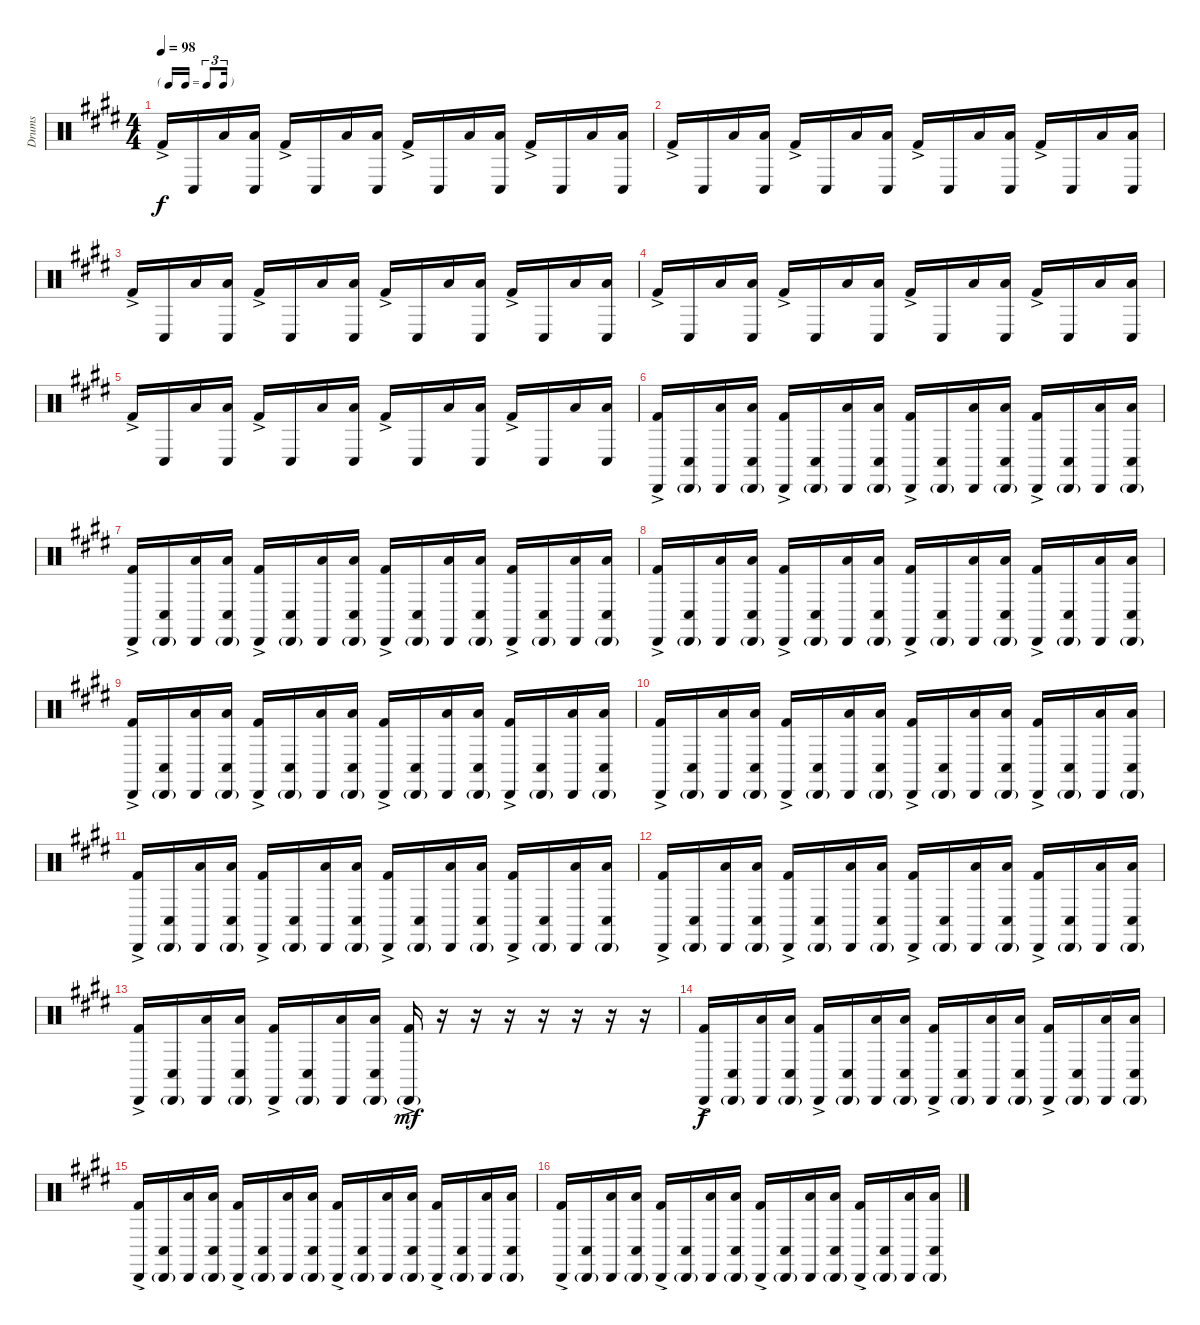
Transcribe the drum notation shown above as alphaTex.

\track ("Drums" "Drums") {instrument percussion}
\staff {score}
\articulation defaults
\ts (4 4)
\tf triplet16th
\tempo 98
\clef neutral
\ks e "Kick (hit) 2"{ac}.16{dy f} "Conga low (hit)".16 "Low Tom (hit)".16
("Low Tom (hit)" "Conga low (hit)").16 "Kick (hit) 2"{ac}.16 "Conga low (hit)".16 "Low Tom (hit)".16 ("Low Tom (hit)" "Conga low (hit)").16 "Kick (hit) 2"{ac}.16 "Conga low (hit)".16 "Low Tom (hit)".16 ("Low Tom (hit)" "Conga low (hit)").16 "Kick (hit) 2"{ac}.16 "Conga low (hit)".16 "Low Tom (hit)".16 ("Low Tom (hit)" "Conga low (hit)").16 |
"Kick (hit) 2"{ac}.16 "Conga low (hit)".16 "Low Tom (hit)".16 ("Low Tom (hit)" "Conga low (hit)").16 "Kick (hit) 2"{ac}.16 "Conga low (hit)".16 "Low Tom (hit)".16 ("Low Tom (hit)" "Conga low (hit)").16 "Kick (hit) 2"{ac}.16 "Conga low (hit)".16 "Low Tom (hit)".16 ("Low Tom (hit)" "Conga low (hit)").16 "Kick (hit) 2"{ac}.16 "Conga low (hit)".16 "Low Tom (hit)".16 ("Low Tom (hit)" "Conga low (hit)").16 |
"Kick (hit) 2"{ac}.16 "Conga low (hit)".16 "Low Tom (hit)".16 ("Low Tom (hit)" "Conga low (hit)").16 "Kick (hit) 2"{ac}.16 "Conga low (hit)".16 "Low Tom (hit)".16 ("Low Tom (hit)" "Conga low (hit)").16 "Kick (hit) 2"{ac}.16 "Conga low (hit)".16 "Low Tom (hit)".16 ("Low Tom (hit)" "Conga low (hit)").16 "Kick (hit) 2"{ac}.16 "Conga low (hit)".16 "Low Tom (hit)".16 ("Low Tom (hit)" "Conga low (hit)").16 |
"Kick (hit) 2"{ac}.16 "Conga low (hit)".16 "Low Tom (hit)".16 ("Low Tom (hit)" "Conga low (hit)").16 "Kick (hit) 2"{ac}.16 "Conga low (hit)".16 "Low Tom (hit)".16 ("Low Tom (hit)" "Conga low (hit)").16 "Kick (hit) 2"{ac}.16 "Conga low (hit)".16 "Low Tom (hit)".16 ("Low Tom (hit)" "Conga low (hit)").16 "Kick (hit) 2"{ac}.16 "Conga low (hit)".16 "Low Tom (hit)".16 ("Low Tom (hit)" "Conga low (hit)").16 |
"Kick (hit) 2"{ac}.16 "Conga low (hit)".16 "Low Tom (hit)".16 ("Low Tom (hit)" "Conga low (hit)").16 "Kick (hit) 2"{ac}.16 "Conga low (hit)".16 "Low Tom (hit)".16 ("Low Tom (hit)" "Conga low (hit)").16 "Kick (hit) 2"{ac}.16 "Conga low (hit)".16 "Low Tom (hit)".16 ("Low Tom (hit)" "Conga low (hit)").16 "Kick (hit) 2"{ac}.16 "Conga low (hit)".16 "Low Tom (hit)".16 ("Low Tom (hit)" "Conga low (hit)").16 |
("Cabasa (hit)" "Kick (hit) 2"{ac}).16 ("Cabasa (hit)"{g} "Conga low (hit)").16 ("Cabasa (hit)" "Low Tom (hit)").16 ("Cabasa (hit)"{g} "Low Tom (hit)" "Conga low (hit)").16 ("Cabasa (hit)" "Kick (hit) 2"{ac}).16 ("Cabasa (hit)"{g} "Conga low (hit)").16 ("Cabasa (hit)" "Low Tom (hit)").16 ("Cabasa (hit)"{g} "Low Tom (hit)" "Conga low (hit)").16 ("Cabasa (hit)" "Kick (hit) 2"{ac}).16 ("Cabasa (hit)"{g} "Conga low (hit)").16 ("Cabasa (hit)" "Low Tom (hit)").16 ("Cabasa (hit)"{g} "Low Tom (hit)" "Conga low (hit)").16 ("Cabasa (hit)" "Kick (hit) 2"{ac}).16 ("Cabasa (hit)"{g} "Conga low (hit)").16 ("Cabasa (hit)" "Low Tom (hit)").16 ("Cabasa (hit)"{g} "Low Tom (hit)" "Conga low (hit)").16 |
("Cabasa (hit)" "Kick (hit) 2"{ac}).16 ("Cabasa (hit)"{g} "Conga low (hit)").16 ("Cabasa (hit)" "Low Tom (hit)").16 ("Cabasa (hit)"{g} "Low Tom (hit)" "Conga low (hit)").16 ("Cabasa (hit)" "Kick (hit) 2"{ac}).16 ("Cabasa (hit)"{g} "Conga low (hit)").16 ("Cabasa (hit)" "Low Tom (hit)").16 ("Cabasa (hit)"{g} "Low Tom (hit)" "Conga low (hit)").16 ("Cabasa (hit)" "Kick (hit) 2"{ac}).16 ("Cabasa (hit)"{g} "Conga low (hit)").16 ("Cabasa (hit)" "Low Tom (hit)").16 ("Cabasa (hit)"{g} "Low Tom (hit)" "Conga low (hit)").16 ("Cabasa (hit)" "Kick (hit) 2"{ac}).16 ("Cabasa (hit)"{g} "Conga low (hit)").16 ("Cabasa (hit)" "Low Tom (hit)").16 ("Cabasa (hit)"{g} "Low Tom (hit)" "Conga low (hit)").16 |
("Cabasa (hit)" "Kick (hit) 2"{ac}).16 ("Cabasa (hit)"{g} "Conga low (hit)").16 ("Cabasa (hit)" "Low Tom (hit)").16 ("Cabasa (hit)"{g} "Low Tom (hit)" "Conga low (hit)").16 ("Cabasa (hit)" "Kick (hit) 2"{ac}).16 ("Cabasa (hit)"{g} "Conga low (hit)").16 ("Cabasa (hit)" "Low Tom (hit)").16 ("Cabasa (hit)"{g} "Low Tom (hit)" "Conga low (hit)").16 ("Cabasa (hit)" "Kick (hit) 2"{ac}).16 ("Cabasa (hit)"{g} "Conga low (hit)").16 ("Cabasa (hit)" "Low Tom (hit)").16 ("Cabasa (hit)"{g} "Low Tom (hit)" "Conga low (hit)").16 ("Cabasa (hit)" "Kick (hit) 2"{ac}).16 ("Cabasa (hit)"{g} "Conga low (hit)").16 ("Cabasa (hit)" "Low Tom (hit)").16 ("Cabasa (hit)"{g} "Low Tom (hit)" "Conga low (hit)").16 |
("Cabasa (hit)" "Kick (hit) 2"{ac}).16 ("Cabasa (hit)"{g} "Conga low (hit)").16 ("Cabasa (hit)" "Low Tom (hit)").16 ("Cabasa (hit)"{g} "Low Tom (hit)" "Conga low (hit)").16 ("Cabasa (hit)" "Kick (hit) 2"{ac}).16 ("Cabasa (hit)"{g} "Conga low (hit)").16 ("Cabasa (hit)" "Low Tom (hit)").16 ("Cabasa (hit)"{g} "Low Tom (hit)" "Conga low (hit)").16 ("Cabasa (hit)" "Kick (hit) 2"{ac}).16 ("Cabasa (hit)"{g} "Conga low (hit)").16 ("Cabasa (hit)" "Low Tom (hit)").16 ("Cabasa (hit)"{g} "Low Tom (hit)" "Conga low (hit)").16 ("Cabasa (hit)" "Kick (hit) 2"{ac}).16 ("Cabasa (hit)"{g} "Conga low (hit)").16 ("Cabasa (hit)" "Low Tom (hit)").16 ("Cabasa (hit)"{g} "Low Tom (hit)" "Conga low (hit)").16 |
("Cabasa (hit)" "Kick (hit) 2"{ac}).16 ("Cabasa (hit)"{g} "Conga low (hit)").16 ("Cabasa (hit)" "Low Tom (hit)").16 ("Cabasa (hit)"{g} "Low Tom (hit)" "Conga low (hit)").16 ("Cabasa (hit)" "Kick (hit) 2"{ac}).16 ("Cabasa (hit)"{g} "Conga low (hit)").16 ("Cabasa (hit)" "Low Tom (hit)").16 ("Cabasa (hit)"{g} "Low Tom (hit)" "Conga low (hit)").16 ("Cabasa (hit)" "Kick (hit) 2"{ac}).16 ("Cabasa (hit)"{g} "Conga low (hit)").16 ("Cabasa (hit)" "Low Tom (hit)").16 ("Cabasa (hit)"{g} "Low Tom (hit)" "Conga low (hit)").16 ("Cabasa (hit)" "Kick (hit) 2"{ac}).16 ("Cabasa (hit)"{g} "Conga low (hit)").16 ("Cabasa (hit)" "Low Tom (hit)").16 ("Cabasa (hit)"{g} "Low Tom (hit)" "Conga low (hit)").16 |
("Cabasa (hit)" "Kick (hit) 2"{ac}).16 ("Cabasa (hit)"{g} "Conga low (hit)").16 ("Cabasa (hit)" "Low Tom (hit)").16 ("Cabasa (hit)"{g} "Low Tom (hit)" "Conga low (hit)").16 ("Cabasa (hit)" "Kick (hit) 2"{ac}).16 ("Cabasa (hit)"{g} "Conga low (hit)").16 ("Cabasa (hit)" "Low Tom (hit)").16 ("Cabasa (hit)"{g} "Low Tom (hit)" "Conga low (hit)").16 ("Cabasa (hit)" "Kick (hit) 2"{ac}).16 ("Cabasa (hit)"{g} "Conga low (hit)").16 ("Cabasa (hit)" "Low Tom (hit)").16 ("Cabasa (hit)"{g} "Low Tom (hit)" "Conga low (hit)").16 ("Cabasa (hit)" "Kick (hit) 2"{ac}).16 ("Cabasa (hit)"{g} "Conga low (hit)").16 ("Cabasa (hit)" "Low Tom (hit)").16 ("Cabasa (hit)"{g} "Low Tom (hit)" "Conga low (hit)").16 |
("Cabasa (hit)" "Kick (hit) 2"{ac}).16 ("Cabasa (hit)"{g} "Conga low (hit)").16 ("Cabasa (hit)" "Low Tom (hit)").16 ("Cabasa (hit)"{g} "Low Tom (hit)" "Conga low (hit)").16 ("Cabasa (hit)" "Kick (hit) 2"{ac}).16 ("Cabasa (hit)"{g} "Conga low (hit)").16 ("Cabasa (hit)" "Low Tom (hit)").16 ("Cabasa (hit)"{g} "Low Tom (hit)" "Conga low (hit)").16 ("Cabasa (hit)" "Kick (hit) 2"{ac}).16 ("Cabasa (hit)"{g} "Conga low (hit)").16 ("Cabasa (hit)" "Low Tom (hit)").16 ("Cabasa (hit)"{g} "Low Tom (hit)" "Conga low (hit)").16 ("Cabasa (hit)" "Kick (hit) 2"{ac}).16 ("Cabasa (hit)"{g} "Conga low (hit)").16 ("Cabasa (hit)" "Low Tom (hit)").16 ("Cabasa (hit)"{g} "Low Tom (hit)" "Conga low (hit)").16 |
("Cabasa (hit)" "Kick (hit) 2"{ac}).16 ("Cabasa (hit)"{g} "Conga low (hit)").16 ("Cabasa (hit)" "Low Tom (hit)").16 ("Cabasa (hit)"{g} "Low Tom (hit)" "Conga low (hit)").16 ("Cabasa (hit)" "Kick (hit) 2"{ac}).16 ("Cabasa (hit)"{g} "Conga low (hit)").16 ("Cabasa (hit)" "Low Tom (hit)").16 ("Cabasa (hit)"{g} "Low Tom (hit)" "Conga low (hit)").16 ("Cabasa (hit)"{g} "Kick (hit) 2"{ac}).16{dy mf} r.16 r.16 r.16 r.16 r.16 r.16 r.16 |
("Cabasa (hit)" "Kick (hit) 2"{ac}).16{dy f} ("Cabasa (hit)"{g} "Conga low (hit)").16 ("Cabasa (hit)" "Low Tom (hit)").16 ("Cabasa (hit)"{g} "Low Tom (hit)" "Conga low (hit)").16 ("Cabasa (hit)" "Kick (hit) 2"{ac}).16 ("Cabasa (hit)"{g} "Conga low (hit)").16 ("Cabasa (hit)" "Low Tom (hit)").16 ("Cabasa (hit)"{g} "Low Tom (hit)" "Conga low (hit)").16 ("Cabasa (hit)" "Kick (hit) 2"{ac}).16 ("Cabasa (hit)"{g} "Conga low (hit)").16 ("Cabasa (hit)" "Low Tom (hit)").16 ("Cabasa (hit)"{g} "Low Tom (hit)" "Conga low (hit)").16 ("Cabasa (hit)" "Kick (hit) 2"{ac}).16 ("Cabasa (hit)"{g} "Conga low (hit)").16 ("Cabasa (hit)" "Low Tom (hit)").16 ("Cabasa (hit)"{g} "Low Tom (hit)" "Conga low (hit)").16 |
("Cabasa (hit)" "Kick (hit) 2"{ac}).16 ("Cabasa (hit)"{g} "Conga low (hit)").16 ("Cabasa (hit)" "Low Tom (hit)").16 ("Cabasa (hit)"{g} "Low Tom (hit)" "Conga low (hit)").16 ("Cabasa (hit)" "Kick (hit) 2"{ac}).16 ("Cabasa (hit)"{g} "Conga low (hit)").16 ("Cabasa (hit)" "Low Tom (hit)").16 ("Cabasa (hit)"{g} "Low Tom (hit)" "Conga low (hit)").16 ("Cabasa (hit)" "Kick (hit) 2"{ac}).16 ("Cabasa (hit)"{g} "Conga low (hit)").16 ("Cabasa (hit)" "Low Tom (hit)").16 ("Cabasa (hit)"{g} "Low Tom (hit)" "Conga low (hit)").16 ("Cabasa (hit)" "Kick (hit) 2"{ac}).16 ("Cabasa (hit)"{g} "Conga low (hit)").16 ("Cabasa (hit)" "Low Tom (hit)").16 ("Cabasa (hit)"{g} "Low Tom (hit)" "Conga low (hit)").16 |
("Cabasa (hit)" "Kick (hit) 2"{ac}).16 ("Cabasa (hit)"{g} "Conga low (hit)").16 ("Cabasa (hit)" "Low Tom (hit)").16 ("Cabasa (hit)"{g} "Low Tom (hit)" "Conga low (hit)").16 ("Cabasa (hit)" "Kick (hit) 2"{ac}).16 ("Cabasa (hit)"{g} "Conga low (hit)").16 ("Cabasa (hit)" "Low Tom (hit)").16 ("Cabasa (hit)"{g} "Low Tom (hit)" "Conga low (hit)").16 ("Cabasa (hit)" "Kick (hit) 2"{ac}).16 ("Cabasa (hit)"{g} "Conga low (hit)").16 ("Cabasa (hit)" "Low Tom (hit)").16 ("Cabasa (hit)"{g} "Low Tom (hit)" "Conga low (hit)").16 ("Cabasa (hit)" "Kick (hit) 2"{ac}).16 ("Cabasa (hit)"{g} "Conga low (hit)").16 ("Cabasa (hit)" "Low Tom (hit)").16 ("Cabasa (hit)"{g} "Low Tom (hit)" "Conga low (hit)").16
